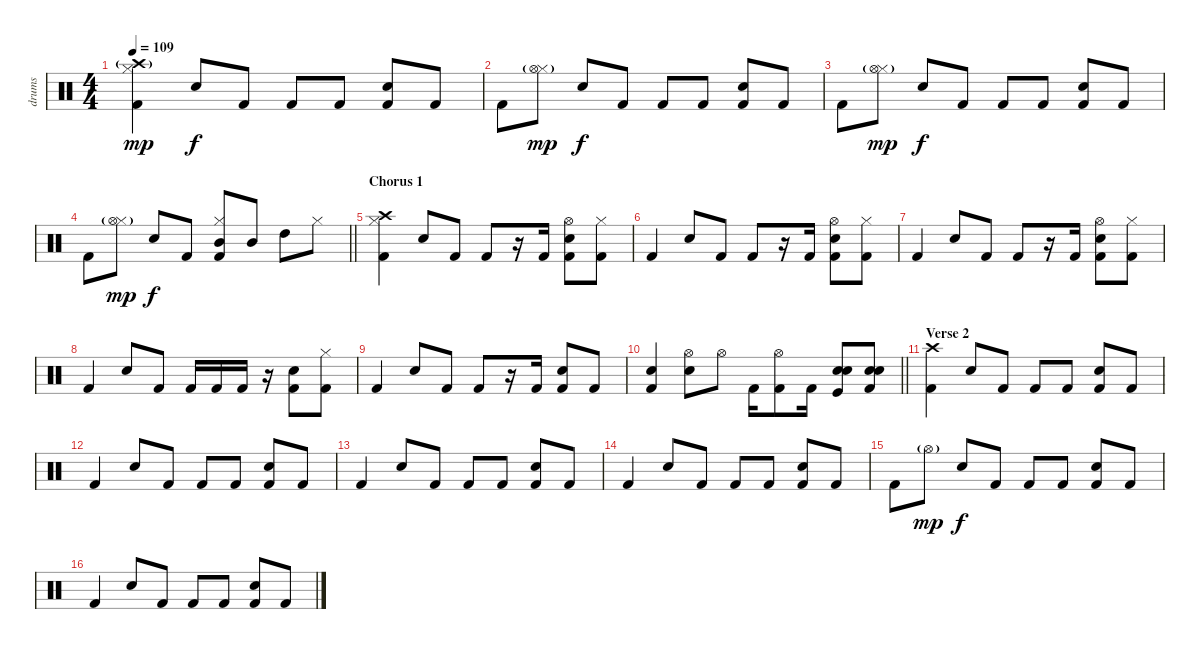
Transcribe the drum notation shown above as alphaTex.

\track ("drums" "drums") {instrument percussion}
\staff {score}
\articulation defaults
\ts (4 4)
\tempo 109
\clef neutral
\ks c
("Kick (hit) 2" "Hi-Hat (closed)" "Crash high (hit)"{g}).4{dy mp} "Snare (hit) 2".8{dy f} "Kick (hit) 2".8 "Kick (hit) 2".8 "Kick (hit) 2".8 ("Snare (hit) 2" "Kick (hit) 2").8 "Kick (hit) 2".8 |
"Kick (hit) 2".8 ("Hi-Hat (closed)" "Hi-Hat (open)"{g}).8{dy mp} "Snare (hit) 2".8{dy f} "Kick (hit) 2".8 "Kick (hit) 2".8 "Kick (hit) 2".8 ("Snare (hit) 2" "Kick (hit) 2").8 "Kick (hit) 2".8 |
"Kick (hit) 2".8 ("Hi-Hat (closed)" "Hi-Hat (open)"{g}).8{dy mp} "Snare (hit) 2".8{dy f} "Kick (hit) 2".8 "Kick (hit) 2".8 "Kick (hit) 2".8 ("Snare (hit) 2" "Kick (hit) 2").8 "Kick (hit) 2".8 |
\barLineRight lightlight "Kick (hit) 2".8
("Hi-Hat (closed)" "Hi-Hat (open)"{g}).8{dy mp} "Snare (hit) 2".8{dy f} "Kick (hit) 2".8 ("Hi-Hat (closed)" "Kick (hit) 2" "Mid Tom (hit)").8 "Mid Tom (hit)".8 "High Tom (hit)".8 "Hi-Hat (closed)".8 |
\section ("" "Chorus 1")
("Hi-Hat (closed)" "Kick (hit) 2" "Crash high (hit)").4 "Snare (hit) 2".8 "Kick (hit) 2".8 "Kick (hit) 2".8 r.16 "Kick (hit) 2".16 ("Snare (hit) 2" "Kick (hit) 2" "Hi-Hat (open)").8 ("Hi-Hat (closed)" "Kick (hit) 2").8 |
"Kick (hit) 2".4 "Snare (hit) 2".8 "Kick (hit) 2".8 "Kick (hit) 2".8 r.16 "Kick (hit) 2".16 ("Snare (hit) 2" "Kick (hit) 2" "Hi-Hat (open)").8 ("Hi-Hat (closed)" "Kick (hit) 2").8 |
"Kick (hit) 2".4 "Snare (hit) 2".8 "Kick (hit) 2".8 "Kick (hit) 2".8 r.16 "Kick (hit) 2".16 ("Snare (hit) 2" "Kick (hit) 2" "Hi-Hat (open)").8 ("Hi-Hat (closed)" "Kick (hit) 2").8 |
"Kick (hit) 2".4 "Snare (hit) 2".8 "Kick (hit) 2".8 "Kick (hit) 2".16 "Kick (hit) 2".16 "Kick (hit) 2".16 r.16 ("Snare (hit) 2" "Kick (hit) 2").8 ("Hi-Hat (closed)" "Kick (hit) 2").8 |
"Kick (hit) 2".4 "Snare (hit) 2".8 "Kick (hit) 2".8 "Kick (hit) 2".8 r.16 "Kick (hit) 2".16 ("Snare (hit) 2" "Kick (hit) 2").8 "Kick (hit) 2".8 |
\barLineRight lightlight
("Snare (hit) 2" "Kick (hit) 2").4 ("Snare (hit) 2" "Hi-Hat (open)").8 "Hi-Hat (open)".8 "Kick (hit) 2".16 ("Hi-Hat (open)" "Kick (hit) 2").8 "Kick (hit) 2".16 ("Snare (hit) 2" "Kick (hit)" "Electric Snare (hit)").8 ("Snare (hit) 2" "Kick (hit) 2" "Electric Snare (hit)").8 |
\section ("" "Verse 2")
("Kick (hit) 2" "Crash high (hit)").4 "Snare (hit) 2".8 "Kick (hit) 2".8 "Kick (hit) 2".8 "Kick (hit) 2".8 ("Snare (hit) 2" "Kick (hit) 2").8 "Kick (hit) 2".8 |
"Kick (hit) 2".4 "Snare (hit) 2".8 "Kick (hit) 2".8 "Kick (hit) 2".8 "Kick (hit) 2".8 ("Snare (hit) 2" "Kick (hit) 2").8 "Kick (hit) 2".8 |
"Kick (hit) 2".4 "Snare (hit) 2".8 "Kick (hit) 2".8 "Kick (hit) 2".8 "Kick (hit) 2".8 ("Snare (hit) 2" "Kick (hit) 2").8 "Kick (hit) 2".8 |
"Kick (hit) 2".4 "Snare (hit) 2".8 "Kick (hit) 2".8 "Kick (hit) 2".8 "Kick (hit) 2".8 ("Snare (hit) 2" "Kick (hit) 2").8 "Kick (hit) 2".8 |
"Kick (hit) 2".8 "Hi-Hat (open)"{g}.8{dy mp} "Snare (hit) 2".8{dy f} "Kick (hit) 2".8 "Kick (hit) 2".8 "Kick (hit) 2".8 ("Snare (hit) 2" "Kick (hit) 2").8 "Kick (hit) 2".8 |
"Kick (hit) 2".4 "Snare (hit) 2".8 "Kick (hit) 2".8 "Kick (hit) 2".8 "Kick (hit) 2".8 ("Snare (hit) 2" "Kick (hit) 2").8 "Kick (hit) 2".8
